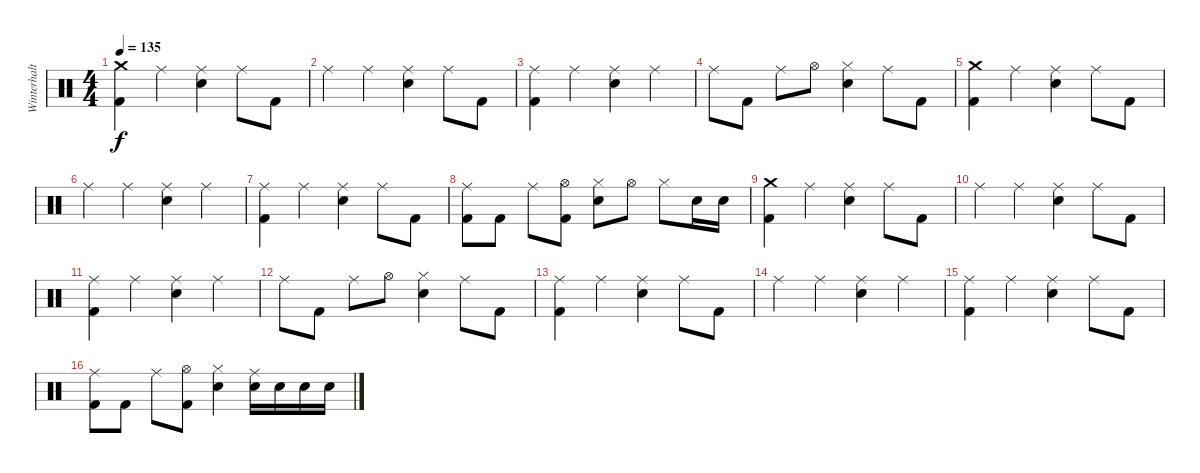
\track ("Winterhalter" "Winterhalt") {instrument percussion}
\staff {score}
\articulation defaults
\ts (4 4)
\tempo 135
\clef neutral
\ks c
("Crash medium (hit)" "Kick (hit) 2").4{dy f} "Ride (middle)".4 ("Ride (middle)" "Snare (hit) 2").4 "Ride (middle)".8 "Kick (hit) 2".8 |
"Ride (middle)".4 "Ride (middle)".4 ("Ride (middle)" "Snare (hit) 2").4 "Ride (middle)".8 "Kick (hit) 2".8 |
("Ride (middle)" "Kick (hit) 2").4 "Ride (middle)".4 ("Ride (middle)" "Snare (hit) 2").4 "Ride (middle)".4 |
"Ride (middle)".8 "Kick (hit) 2".8 "Ride (middle)".8 "Hi-Hat (open)".8 ("Hi-Hat (closed)" "Snare (hit) 2").4 "Ride (middle)".8 "Kick (hit) 2".8 |
("Crash medium (hit)" "Kick (hit) 2").4 "Ride (middle)".4 ("Ride (middle)" "Snare (hit) 2").4 "Ride (middle)".8 "Kick (hit) 2".8 |
"Ride (middle)".4 "Ride (middle)".4 ("Ride (middle)" "Snare (hit) 2").4 "Ride (middle)".4 |
("Ride (middle)" "Kick (hit) 2").4 "Ride (middle)".4 ("Ride (middle)" "Snare (hit) 2").4 "Ride (middle)".8 "Kick (hit) 2".8 |
("Ride (middle)" "Kick (hit) 2").8 "Kick (hit) 2".8 "Ride (middle)".8 ("Hi-Hat (open)" "Kick (hit) 2").8 ("Hi-Hat (closed)" "Snare (hit) 2").8 "Hi-Hat (open)".8 "Hi-Hat (closed)".8 "Snare (hit) 2".16 "Snare (hit) 2".16 |
("Crash medium (hit)" "Kick (hit) 2").4 "Ride (middle)".4 ("Ride (middle)" "Snare (hit) 2").4 "Ride (middle)".8 "Kick (hit) 2".8 |
"Ride (middle)".4 "Ride (middle)".4 ("Ride (middle)" "Snare (hit) 2").4 "Ride (middle)".8 "Kick (hit) 2".8 |
("Ride (middle)" "Kick (hit) 2").4 "Ride (middle)".4 ("Ride (middle)" "Snare (hit) 2").4 "Ride (middle)".4 |
"Ride (middle)".8 "Kick (hit) 2".8 "Ride (middle)".8 "Hi-Hat (open)".8 ("Hi-Hat (closed)" "Snare (hit) 2").4 "Ride (middle)".8 "Kick (hit) 2".8 |
("Ride (middle)" "Kick (hit) 2").4 "Ride (middle)".4 ("Ride (middle)" "Snare (hit) 2").4 "Ride (middle)".8 "Kick (hit) 2".8 |
"Ride (middle)".4 "Ride (middle)".4 ("Ride (middle)" "Snare (hit) 2").4 "Ride (middle)".4 |
("Ride (middle)" "Kick (hit) 2").4 "Ride (middle)".4 ("Ride (middle)" "Snare (hit) 2").4 "Ride (middle)".8 "Kick (hit) 2".8 |
("Ride (middle)" "Kick (hit) 2").8 "Kick (hit) 2".8 "Ride (middle)".8 ("Hi-Hat (open)" "Kick (hit) 2").8 ("Hi-Hat (closed)" "Snare (hit) 2").4 ("Ride (middle)" "Snare (hit) 2").16 "Snare (hit) 2".16 "Snare (hit) 2".16 "Snare (hit) 2".16
